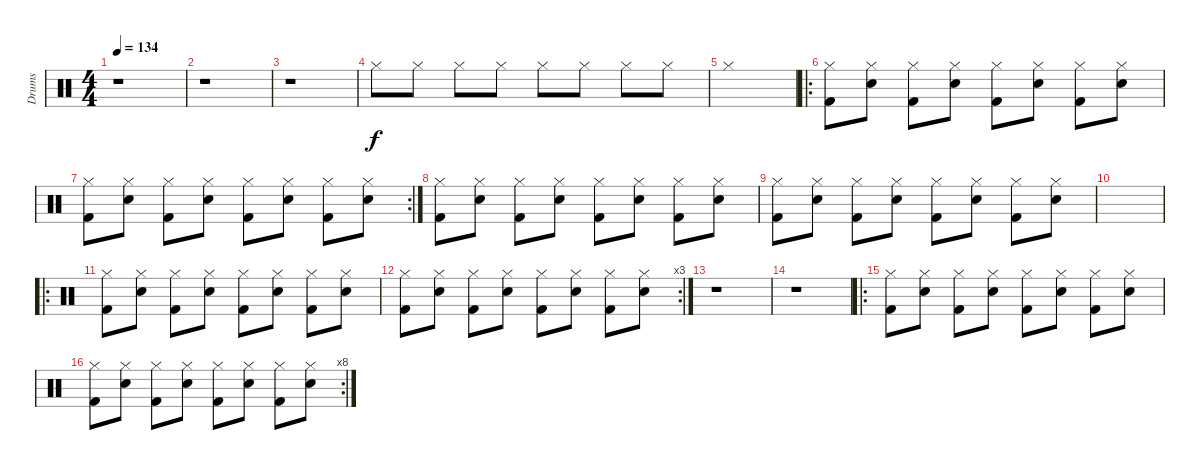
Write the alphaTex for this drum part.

\track ("Drums" "Drums") {instrument percussion}
\staff {score}
\articulation defaults
\ts (4 4)
\tempo 134
\clef neutral
\ks c
r.1{dy f} |
r.1 |
r.1 |
"Hi-Hat (closed)".8 "Hi-Hat (closed)".8 "Hi-Hat (closed)".8 "Hi-Hat (closed)".8 "Hi-Hat (closed)".8 "Hi-Hat (closed)".8 "Hi-Hat (closed)".8 "Hi-Hat (closed)".8 |
"Hi-Hat (closed)".1 |
\ro
("Hi-Hat (closed)" "Kick (hit) 2").8 ("Hi-Hat (closed)" "Electric Snare (hit)").8 ("Hi-Hat (closed)" "Kick (hit) 2").8 ("Hi-Hat (closed)" "Electric Snare (hit)").8 ("Hi-Hat (closed)" "Kick (hit) 2").8 ("Hi-Hat (closed)" "Electric Snare (hit)").8 ("Hi-Hat (closed)" "Kick (hit) 2").8 ("Hi-Hat (closed)" "Electric Snare (hit)").8 |
\rc 2
("Hi-Hat (closed)" "Kick (hit) 2").8 ("Hi-Hat (closed)" "Electric Snare (hit)").8 ("Hi-Hat (closed)" "Kick (hit) 2").8 ("Hi-Hat (closed)" "Electric Snare (hit)").8 ("Hi-Hat (closed)" "Kick (hit) 2").8 ("Hi-Hat (closed)" "Electric Snare (hit)").8 ("Hi-Hat (closed)" "Kick (hit) 2").8 ("Hi-Hat (closed)" "Electric Snare (hit)").8 |
("Hi-Hat (closed)" "Kick (hit) 2").8 ("Hi-Hat (closed)" "Electric Snare (hit)").8 ("Hi-Hat (closed)" "Kick (hit) 2").8 ("Hi-Hat (closed)" "Electric Snare (hit)").8 ("Hi-Hat (closed)" "Kick (hit) 2").8 ("Hi-Hat (closed)" "Electric Snare (hit)").8 ("Hi-Hat (closed)" "Kick (hit) 2").8 ("Hi-Hat (closed)" "Electric Snare (hit)").8 |
("Hi-Hat (closed)" "Kick (hit) 2").8 ("Hi-Hat (closed)" "Electric Snare (hit)").8 ("Hi-Hat (closed)" "Kick (hit) 2").8 ("Hi-Hat (closed)" "Electric Snare (hit)").8 ("Hi-Hat (closed)" "Kick (hit) 2").8 ("Hi-Hat (closed)" "Electric Snare (hit)").8 ("Hi-Hat (closed)" "Kick (hit) 2").8 ("Hi-Hat (closed)" "Electric Snare (hit)").8 |
|
\ro
("Hi-Hat (closed)" "Kick (hit) 2").8 ("Hi-Hat (closed)" "Electric Snare (hit)").8 ("Hi-Hat (closed)" "Kick (hit) 2").8 ("Hi-Hat (closed)" "Electric Snare (hit)").8 ("Hi-Hat (closed)" "Kick (hit) 2").8 ("Hi-Hat (closed)" "Electric Snare (hit)").8 ("Hi-Hat (closed)" "Kick (hit) 2").8 ("Hi-Hat (closed)" "Electric Snare (hit)").8 |
\rc 3
("Hi-Hat (closed)" "Kick (hit) 2").8 ("Hi-Hat (closed)" "Electric Snare (hit)").8 ("Hi-Hat (closed)" "Kick (hit) 2").8 ("Hi-Hat (closed)" "Electric Snare (hit)").8 ("Hi-Hat (closed)" "Kick (hit) 2").8 ("Hi-Hat (closed)" "Electric Snare (hit)").8 ("Hi-Hat (closed)" "Kick (hit) 2").8 ("Hi-Hat (closed)" "Electric Snare (hit)").8 |
r.1 |
r.1 |
\ro
("Hi-Hat (closed)" "Kick (hit) 2").8 ("Hi-Hat (closed)" "Electric Snare (hit)").8 ("Hi-Hat (closed)" "Kick (hit) 2").8 ("Hi-Hat (closed)" "Electric Snare (hit)").8 ("Hi-Hat (closed)" "Kick (hit) 2").8 ("Hi-Hat (closed)" "Electric Snare (hit)").8 ("Hi-Hat (closed)" "Kick (hit) 2").8 ("Hi-Hat (closed)" "Electric Snare (hit)").8 |
\rc 8
("Hi-Hat (closed)" "Kick (hit) 2").8 ("Hi-Hat (closed)" "Electric Snare (hit)").8 ("Hi-Hat (closed)" "Kick (hit) 2").8 ("Hi-Hat (closed)" "Electric Snare (hit)").8 ("Hi-Hat (closed)" "Kick (hit) 2").8 ("Hi-Hat (closed)" "Electric Snare (hit)").8 ("Hi-Hat (closed)" "Kick (hit) 2").8 ("Hi-Hat (closed)" "Electric Snare (hit)").8
